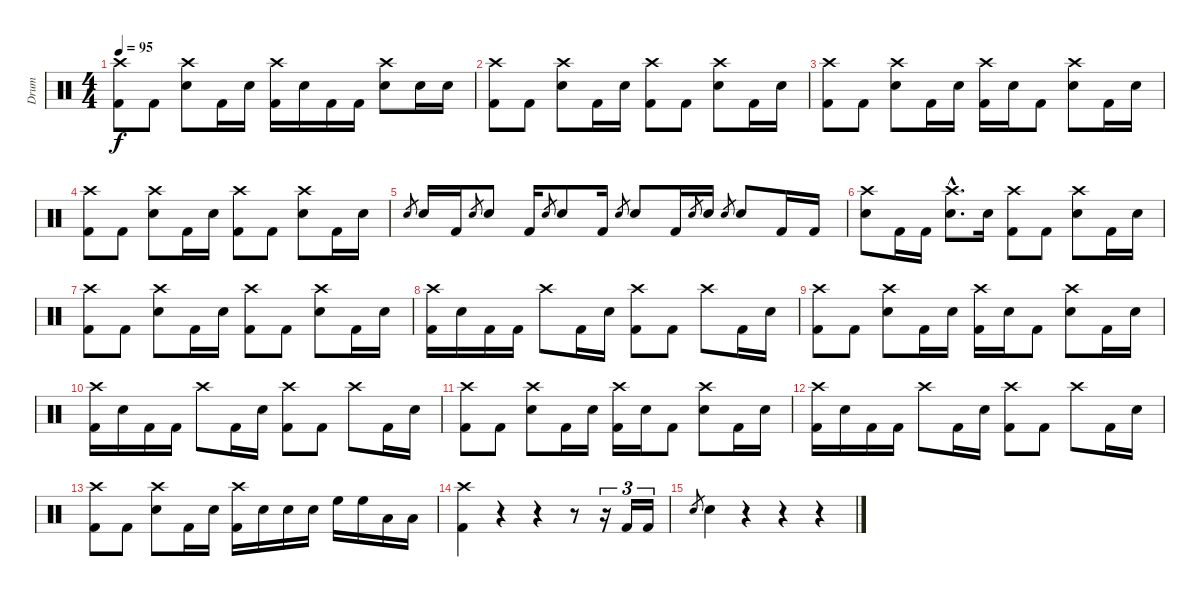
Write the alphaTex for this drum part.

\track ("Drum" "Drum") {instrument percussion}
\staff {score}
\articulation defaults
\ts (4 4)
\tempo 95
\clef neutral
\ks c
("Crash high (hit)" "Kick (hit) 2").8{dy f} "Kick (hit) 2".8 ("Crash high (hit)" "Electric Snare (hit)").8 "Kick (hit) 2".16 "Electric Snare (hit)".16 ("Crash high (hit)" "Kick (hit) 2").16 "Electric Snare (hit)".16 "Kick (hit) 2".16 "Kick (hit) 2".16 ("Crash high (hit)" "Electric Snare (hit)").8 "Electric Snare (hit)".16 "Electric Snare (hit)".16 |
("Crash high (hit)" "Kick (hit) 2").8 "Kick (hit) 2".8 ("Crash high (hit)" "Electric Snare (hit)").8 "Kick (hit) 2".16 "Electric Snare (hit)".16 ("Crash high (hit)" "Kick (hit) 2").8 "Kick (hit) 2".8 ("Crash high (hit)" "Electric Snare (hit)").8 "Kick (hit) 2".16 "Electric Snare (hit)".16 |
("Crash high (hit)" "Kick (hit) 2").8 "Kick (hit) 2".8 ("Crash high (hit)" "Electric Snare (hit)").8 "Kick (hit) 2".16 "Electric Snare (hit)".16 ("Crash high (hit)" "Kick (hit) 2").16 "Electric Snare (hit)".16 "Kick (hit) 2".8 ("Crash high (hit)" "Electric Snare (hit)").8 "Kick (hit) 2".16 "Electric Snare (hit)".16 |
("Crash high (hit)" "Kick (hit) 2").8 "Kick (hit) 2".8 ("Crash high (hit)" "Electric Snare (hit)").8 "Kick (hit) 2".16 "Electric Snare (hit)".16 ("Crash high (hit)" "Kick (hit) 2").8 "Kick (hit) 2".8 ("Crash high (hit)" "Electric Snare (hit)").8 "Kick (hit) 2".16 "Electric Snare (hit)".16 |
"Electric Snare (hit)".8{gr} "Electric Snare (hit)".16 "Kick (hit) 2".16 "Electric Snare (hit)".8{gr} "Electric Snare (hit)".8 "Kick (hit) 2".16 "Electric Snare (hit)".8{gr} "Electric Snare (hit)".8 "Kick (hit) 2".16 "Electric Snare (hit)".8{gr} "Electric Snare (hit)".8 "Kick (hit) 2".16 "Electric Snare (hit)".8{gr} "Electric Snare (hit)".16 "Electric Snare (hit)".8{gr} "Electric Snare (hit)".8 "Kick (hit) 2".16 "Kick (hit) 2".16 |
("Crash high (hit)" "Electric Snare (hit)").8 "Kick (hit) 2".16 "Kick (hit) 2".16 ("Crash high (hit)"{hac} "Electric Snare (hit)"{hac}).8{d} "Electric Snare (hit)".16 ("Crash high (hit)" "Kick (hit) 2").8 "Kick (hit) 2".8 ("Crash high (hit)" "Electric Snare (hit)").8 "Kick (hit) 2".16 "Electric Snare (hit)".16 |
("Crash high (hit)" "Kick (hit) 2").8 "Kick (hit) 2".8 ("Crash high (hit)" "Electric Snare (hit)").8 "Kick (hit) 2".16 "Electric Snare (hit)".16 ("Crash high (hit)" "Kick (hit) 2").8 "Kick (hit) 2".8 ("Crash high (hit)" "Electric Snare (hit)").8 "Kick (hit) 2".16 "Electric Snare (hit)".16 |
("Crash high (hit)" "Kick (hit) 2").16 "Electric Snare (hit)".16 "Kick (hit) 2".16 "Kick (hit) 2".16 "Crash high (hit)".8 "Kick (hit) 2".16 "Electric Snare (hit)".16 ("Crash high (hit)" "Kick (hit) 2").8 "Kick (hit) 2".8 "Crash high (hit)".8 "Kick (hit) 2".16 "Electric Snare (hit)".16 |
("Crash high (hit)" "Kick (hit) 2").8 "Kick (hit) 2".8 ("Crash high (hit)" "Electric Snare (hit)").8 "Kick (hit) 2".16 "Electric Snare (hit)".16 ("Crash high (hit)" "Kick (hit) 2").16 "Electric Snare (hit)".16 "Kick (hit) 2".8 ("Crash high (hit)" "Electric Snare (hit)").8 "Kick (hit) 2".16 "Electric Snare (hit)".16 |
("Crash high (hit)" "Kick (hit) 2").16 "Electric Snare (hit)".16 "Kick (hit) 2".16 "Kick (hit) 2".16 "Crash high (hit)".8 "Kick (hit) 2".16 "Electric Snare (hit)".16 ("Crash high (hit)" "Kick (hit) 2").8 "Kick (hit) 2".8 "Crash high (hit)".8 "Kick (hit) 2".16 "Electric Snare (hit)".16 |
("Crash high (hit)" "Kick (hit) 2").8 "Kick (hit) 2".8 ("Crash high (hit)" "Electric Snare (hit)").8 "Kick (hit) 2".16 "Electric Snare (hit)".16 ("Crash high (hit)" "Kick (hit) 2").16 "Electric Snare (hit)".16 "Kick (hit) 2".8 ("Crash high (hit)" "Electric Snare (hit)").8 "Kick (hit) 2".16 "Electric Snare (hit)".16 |
("Crash high (hit)" "Kick (hit) 2").16 "Electric Snare (hit)".16 "Kick (hit) 2".16 "Kick (hit) 2".16 "Crash high (hit)".8 "Kick (hit) 2".16 "Electric Snare (hit)".16 ("Crash high (hit)" "Kick (hit) 2").8 "Kick (hit) 2".8 "Crash high (hit)".8 "Kick (hit) 2".16 "Electric Snare (hit)".16 |
("Crash high (hit)" "Kick (hit) 2").8 "Kick (hit) 2".8 ("Crash high (hit)" "Electric Snare (hit)").8 "Kick (hit) 2".16 "Electric Snare (hit)".16 ("Crash high (hit)" "Kick (hit) 2").16 "Electric Snare (hit)".16 "Electric Snare (hit)".16 "Electric Snare (hit)".16 "High Floor Tom (hit)".16 "High Floor Tom (hit)".16 "Low Tom (hit)".16 "Low Tom (hit)".16 |
("Crash high (hit)" "Kick (hit) 2").4 r.4 r.4 r.8 r.16{tu (3 2)} "Kick (hit) 2".16{tu (3 2)} "Kick (hit) 2".16{tu (3 2)} |
"Electric Snare (hit)".8{gr} "Electric Snare (hit)".4 r.4 r.4 r.4
